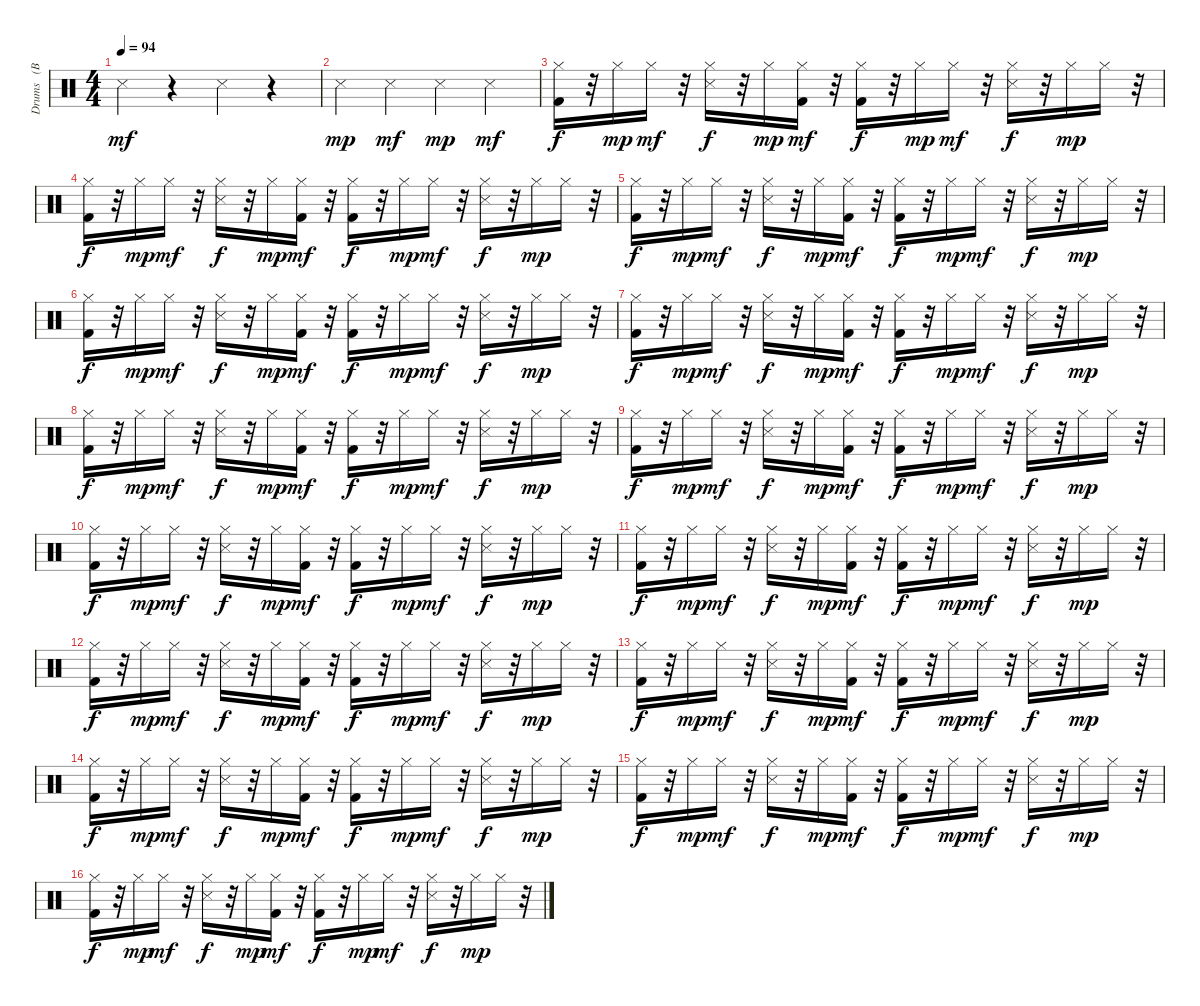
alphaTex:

\track ("Drums   (BB)" "Drums   (B") {instrument percussion}
\staff {score}
\articulation defaults
\ts (4 4)
\tempo 94
\clef neutral
\ks c "Snare (side stick) 3".4{dy mf}
r.4 "Snare (side stick) 3".4 r.4 |
"Snare (side stick) 3".4{dy mp} "Snare (side stick) 3".4{dy mf} "Snare (side stick) 3".4{dy mp} "Snare (side stick) 3".4{dy mf} |
("Kick (hit) 2" "Hi-Hat (closed)").16{dy f} r.32 "Hi-Hat (closed)".16{dy mp} "Hi-Hat (closed)".16{dy mf} r.32 ("Hi-Hat (closed)" "Snare (side stick) 3").16{dy f} r.32 "Hi-Hat (closed)".16{dy mp} ("Kick (hit) 2" "Hi-Hat (closed)").16{dy mf} r.32 ("Kick (hit) 2" "Hi-Hat (closed)").16{dy f} r.32 "Hi-Hat (closed)".16{dy mp} "Hi-Hat (closed)".16{dy mf} r.32 ("Hi-Hat (closed)" "Snare (side stick) 3").16{dy f} r.32 "Hi-Hat (closed)".16{dy mp} "Hi-Hat (closed)".16 r.32 |
("Kick (hit) 2" "Hi-Hat (closed)").16{dy f} r.32 "Hi-Hat (closed)".16{dy mp} "Hi-Hat (closed)".16{dy mf} r.32 ("Hi-Hat (closed)" "Snare (side stick) 3").16{dy f} r.32 "Hi-Hat (closed)".16{dy mp} ("Kick (hit) 2" "Hi-Hat (closed)").16{dy mf} r.32 ("Kick (hit) 2" "Hi-Hat (closed)").16{dy f} r.32 "Hi-Hat (closed)".16{dy mp} "Hi-Hat (closed)".16{dy mf} r.32 ("Hi-Hat (closed)" "Snare (side stick) 3").16{dy f} r.32 "Hi-Hat (closed)".16{dy mp} "Hi-Hat (closed)".16 r.32 |
("Kick (hit) 2" "Hi-Hat (closed)").16{dy f} r.32 "Hi-Hat (closed)".16{dy mp} "Hi-Hat (closed)".16{dy mf} r.32 ("Hi-Hat (closed)" "Snare (side stick) 3").16{dy f} r.32 "Hi-Hat (closed)".16{dy mp} ("Kick (hit) 2" "Hi-Hat (closed)").16{dy mf} r.32 ("Kick (hit) 2" "Hi-Hat (closed)").16{dy f} r.32 "Hi-Hat (closed)".16{dy mp} "Hi-Hat (closed)".16{dy mf} r.32 ("Hi-Hat (closed)" "Snare (side stick) 3").16{dy f} r.32 "Hi-Hat (closed)".16{dy mp} "Hi-Hat (closed)".16 r.32 |
("Kick (hit) 2" "Hi-Hat (closed)").16{dy f} r.32 "Hi-Hat (closed)".16{dy mp} "Hi-Hat (closed)".16{dy mf} r.32 ("Hi-Hat (closed)" "Snare (side stick) 3").16{dy f} r.32 "Hi-Hat (closed)".16{dy mp} ("Kick (hit) 2" "Hi-Hat (closed)").16{dy mf} r.32 ("Kick (hit) 2" "Hi-Hat (closed)").16{dy f} r.32 "Hi-Hat (closed)".16{dy mp} "Hi-Hat (closed)".16{dy mf} r.32 ("Hi-Hat (closed)" "Snare (side stick) 3").16{dy f} r.32 "Hi-Hat (closed)".16{dy mp} "Hi-Hat (closed)".16 r.32 |
("Kick (hit) 2" "Hi-Hat (closed)").16{dy f} r.32 "Hi-Hat (closed)".16{dy mp} "Hi-Hat (closed)".16{dy mf} r.32 ("Hi-Hat (closed)" "Snare (side stick) 3").16{dy f} r.32 "Hi-Hat (closed)".16{dy mp} ("Kick (hit) 2" "Hi-Hat (closed)").16{dy mf} r.32 ("Kick (hit) 2" "Hi-Hat (closed)").16{dy f} r.32 "Hi-Hat (closed)".16{dy mp} "Hi-Hat (closed)".16{dy mf} r.32 ("Hi-Hat (closed)" "Snare (side stick) 3").16{dy f} r.32 "Hi-Hat (closed)".16{dy mp} "Hi-Hat (closed)".16 r.32 |
("Kick (hit) 2" "Hi-Hat (closed)").16{dy f} r.32 "Hi-Hat (closed)".16{dy mp} "Hi-Hat (closed)".16{dy mf} r.32 ("Hi-Hat (closed)" "Snare (side stick) 3").16{dy f} r.32 "Hi-Hat (closed)".16{dy mp} ("Kick (hit) 2" "Hi-Hat (closed)").16{dy mf} r.32 ("Kick (hit) 2" "Hi-Hat (closed)").16{dy f} r.32 "Hi-Hat (closed)".16{dy mp} "Hi-Hat (closed)".16{dy mf} r.32 ("Hi-Hat (closed)" "Snare (side stick) 3").16{dy f} r.32 "Hi-Hat (closed)".16{dy mp} "Hi-Hat (closed)".16 r.32 |
("Kick (hit) 2" "Hi-Hat (closed)").16{dy f} r.32 "Hi-Hat (closed)".16{dy mp} "Hi-Hat (closed)".16{dy mf} r.32 ("Hi-Hat (closed)" "Snare (side stick) 3").16{dy f} r.32 "Hi-Hat (closed)".16{dy mp} ("Kick (hit) 2" "Hi-Hat (closed)").16{dy mf} r.32 ("Kick (hit) 2" "Hi-Hat (closed)").16{dy f} r.32 "Hi-Hat (closed)".16{dy mp} "Hi-Hat (closed)".16{dy mf} r.32 ("Hi-Hat (closed)" "Snare (side stick) 3").16{dy f} r.32 "Hi-Hat (closed)".16{dy mp} "Hi-Hat (closed)".16 r.32 |
("Kick (hit) 2" "Hi-Hat (closed)").16{dy f} r.32 "Hi-Hat (closed)".16{dy mp} "Hi-Hat (closed)".16{dy mf} r.32 ("Hi-Hat (closed)" "Snare (side stick) 3").16{dy f} r.32 "Hi-Hat (closed)".16{dy mp} ("Kick (hit) 2" "Hi-Hat (closed)").16{dy mf} r.32 ("Kick (hit) 2" "Hi-Hat (closed)").16{dy f} r.32 "Hi-Hat (closed)".16{dy mp} "Hi-Hat (closed)".16{dy mf} r.32 ("Hi-Hat (closed)" "Snare (side stick) 3").16{dy f} r.32 "Hi-Hat (closed)".16{dy mp} "Hi-Hat (closed)".16 r.32 |
("Kick (hit) 2" "Hi-Hat (closed)").16{dy f} r.32 "Hi-Hat (closed)".16{dy mp} "Hi-Hat (closed)".16{dy mf} r.32 ("Hi-Hat (closed)" "Snare (side stick) 3").16{dy f} r.32 "Hi-Hat (closed)".16{dy mp} ("Kick (hit) 2" "Hi-Hat (closed)").16{dy mf} r.32 ("Kick (hit) 2" "Hi-Hat (closed)").16{dy f} r.32 "Hi-Hat (closed)".16{dy mp} "Hi-Hat (closed)".16{dy mf} r.32 ("Hi-Hat (closed)" "Snare (side stick) 3").16{dy f} r.32 "Hi-Hat (closed)".16{dy mp} "Hi-Hat (closed)".16 r.32 |
("Kick (hit) 2" "Hi-Hat (closed)").16{dy f} r.32 "Hi-Hat (closed)".16{dy mp} "Hi-Hat (closed)".16{dy mf} r.32 ("Hi-Hat (closed)" "Snare (side stick) 3").16{dy f} r.32 "Hi-Hat (closed)".16{dy mp} ("Kick (hit) 2" "Hi-Hat (closed)").16{dy mf} r.32 ("Kick (hit) 2" "Hi-Hat (closed)").16{dy f} r.32 "Hi-Hat (closed)".16{dy mp} "Hi-Hat (closed)".16{dy mf} r.32 ("Hi-Hat (closed)" "Snare (side stick) 3").16{dy f} r.32 "Hi-Hat (closed)".16{dy mp} "Hi-Hat (closed)".16 r.32 |
("Kick (hit) 2" "Hi-Hat (closed)").16{dy f} r.32 "Hi-Hat (closed)".16{dy mp} "Hi-Hat (closed)".16{dy mf} r.32 ("Hi-Hat (closed)" "Snare (side stick) 3").16{dy f} r.32 "Hi-Hat (closed)".16{dy mp} ("Kick (hit) 2" "Hi-Hat (closed)").16{dy mf} r.32 ("Kick (hit) 2" "Hi-Hat (closed)").16{dy f} r.32 "Hi-Hat (closed)".16{dy mp} "Hi-Hat (closed)".16{dy mf} r.32 ("Hi-Hat (closed)" "Snare (side stick) 3").16{dy f} r.32 "Hi-Hat (closed)".16{dy mp} "Hi-Hat (closed)".16 r.32 |
("Kick (hit) 2" "Hi-Hat (closed)").16{dy f} r.32 "Hi-Hat (closed)".16{dy mp} "Hi-Hat (closed)".16{dy mf} r.32 ("Hi-Hat (closed)" "Snare (side stick) 3").16{dy f} r.32 "Hi-Hat (closed)".16{dy mp} ("Kick (hit) 2" "Hi-Hat (closed)").16{dy mf} r.32 ("Kick (hit) 2" "Hi-Hat (closed)").16{dy f} r.32 "Hi-Hat (closed)".16{dy mp} "Hi-Hat (closed)".16{dy mf} r.32 ("Hi-Hat (closed)" "Snare (side stick) 3").16{dy f} r.32 "Hi-Hat (closed)".16{dy mp} "Hi-Hat (closed)".16 r.32 |
("Kick (hit) 2" "Hi-Hat (closed)").16{dy f} r.32 "Hi-Hat (closed)".16{dy mp} "Hi-Hat (closed)".16{dy mf} r.32 ("Hi-Hat (closed)" "Snare (side stick) 3").16{dy f} r.32 "Hi-Hat (closed)".16{dy mp} ("Kick (hit) 2" "Hi-Hat (closed)").16{dy mf} r.32 ("Kick (hit) 2" "Hi-Hat (closed)").16{dy f} r.32 "Hi-Hat (closed)".16{dy mp} "Hi-Hat (closed)".16{dy mf} r.32 ("Hi-Hat (closed)" "Snare (side stick) 3").16{dy f} r.32 "Hi-Hat (closed)".16{dy mp} "Hi-Hat (closed)".16 r.32 |
("Kick (hit) 2" "Hi-Hat (closed)").16{dy f} r.32 "Hi-Hat (closed)".16{dy mp} "Hi-Hat (closed)".16{dy mf} r.32 ("Hi-Hat (closed)" "Snare (side stick) 3").16{dy f} r.32 "Hi-Hat (closed)".16{dy mp} ("Kick (hit) 2" "Hi-Hat (closed)").16{dy mf} r.32 ("Kick (hit) 2" "Hi-Hat (closed)").16{dy f} r.32 "Hi-Hat (closed)".16{dy mp} "Hi-Hat (closed)".16{dy mf} r.32 ("Hi-Hat (closed)" "Snare (side stick) 3").16{dy f} r.32 "Hi-Hat (closed)".16{dy mp} "Hi-Hat (closed)".16 r.32
